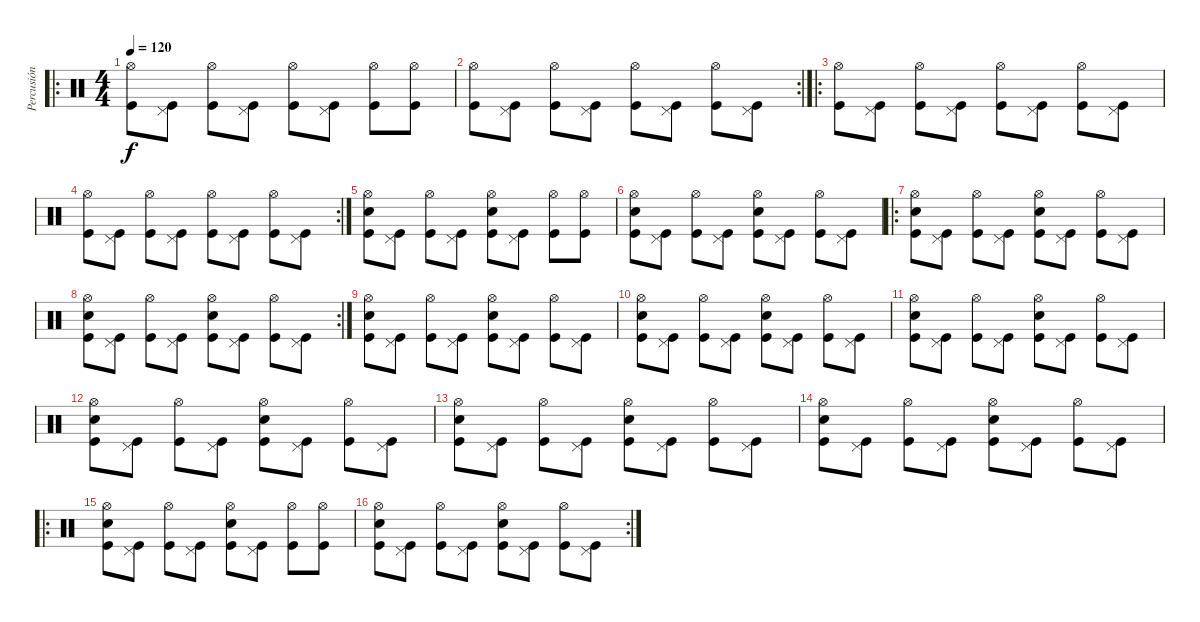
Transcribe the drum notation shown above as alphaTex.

\track ("Percusión" "Percusión") {instrument percussion}
\staff {score}
\articulation defaults
\ro
\ts (4 4)
\tempo 120
\clef neutral
\ks c
("Hi-Hat (open)" "Kick (hit)").8{dy f} ("Pedal Hi-Hat (hit)" "Kick (hit)").8 ("Hi-Hat (open)" "Kick (hit)").8 ("Pedal Hi-Hat (hit)" "Kick (hit)").8 ("Hi-Hat (open)" "Kick (hit)").8 ("Pedal Hi-Hat (hit)" "Kick (hit)").8 ("Hi-Hat (open)" "Kick (hit)").8 ("Hi-Hat (open)" "Kick (hit)").8 |
\rc 2
("Hi-Hat (open)" "Kick (hit)").8 ("Pedal Hi-Hat (hit)" "Kick (hit)").8 ("Hi-Hat (open)" "Kick (hit)").8 ("Pedal Hi-Hat (hit)" "Kick (hit)").8 ("Hi-Hat (open)" "Kick (hit)").8 ("Pedal Hi-Hat (hit)" "Kick (hit)").8 ("Hi-Hat (open)" "Kick (hit)").8 ("Pedal Hi-Hat (hit)" "Kick (hit)").8 |
\ro
("Hi-Hat (open)" "Kick (hit)").8 ("Pedal Hi-Hat (hit)" "Kick (hit)").8 ("Hi-Hat (open)" "Kick (hit)").8 ("Pedal Hi-Hat (hit)" "Kick (hit)").8 ("Hi-Hat (open)" "Kick (hit)").8 ("Pedal Hi-Hat (hit)" "Kick (hit)").8 ("Hi-Hat (open)" "Kick (hit)").8 ("Pedal Hi-Hat (hit)" "Kick (hit)").8 |
\rc 2
("Hi-Hat (open)" "Kick (hit)").8 ("Pedal Hi-Hat (hit)" "Kick (hit)").8 ("Hi-Hat (open)" "Kick (hit)").8 ("Pedal Hi-Hat (hit)" "Kick (hit)").8 ("Hi-Hat (open)" "Kick (hit)").8 ("Pedal Hi-Hat (hit)" "Kick (hit)").8 ("Hi-Hat (open)" "Kick (hit)").8 ("Pedal Hi-Hat (hit)" "Kick (hit)").8 |
("Hi-Hat (open)" "Snare (hit) 2" "Kick (hit)").8 ("Pedal Hi-Hat (hit)" "Kick (hit)").8 ("Hi-Hat (open)" "Kick (hit)").8 ("Pedal Hi-Hat (hit)" "Kick (hit)").8 ("Hi-Hat (open)" "Snare (hit) 2" "Kick (hit)").8 ("Pedal Hi-Hat (hit)" "Kick (hit)").8 ("Hi-Hat (open)" "Kick (hit)").8 ("Hi-Hat (open)" "Kick (hit)").8 |
("Hi-Hat (open)" "Snare (hit) 2" "Kick (hit)").8 ("Pedal Hi-Hat (hit)" "Kick (hit)").8 ("Hi-Hat (open)" "Kick (hit)").8 ("Pedal Hi-Hat (hit)" "Kick (hit)").8 ("Hi-Hat (open)" "Snare (hit) 2" "Kick (hit)").8 ("Pedal Hi-Hat (hit)" "Kick (hit)").8 ("Hi-Hat (open)" "Kick (hit)").8 ("Pedal Hi-Hat (hit)" "Kick (hit)").8 |
\ro
("Hi-Hat (open)" "Snare (hit) 2" "Kick (hit)").8 ("Pedal Hi-Hat (hit)" "Kick (hit)").8 ("Hi-Hat (open)" "Kick (hit)").8 ("Pedal Hi-Hat (hit)" "Kick (hit)").8 ("Hi-Hat (open)" "Snare (hit) 2" "Kick (hit)").8 ("Pedal Hi-Hat (hit)" "Kick (hit)").8 ("Hi-Hat (open)" "Kick (hit)").8 ("Pedal Hi-Hat (hit)" "Kick (hit)").8 |
\rc 2
("Hi-Hat (open)" "Snare (hit) 2" "Kick (hit)").8 ("Pedal Hi-Hat (hit)" "Kick (hit)").8 ("Hi-Hat (open)" "Kick (hit)").8 ("Pedal Hi-Hat (hit)" "Kick (hit)").8 ("Hi-Hat (open)" "Snare (hit) 2" "Kick (hit)").8 ("Pedal Hi-Hat (hit)" "Kick (hit)").8 ("Hi-Hat (open)" "Kick (hit)").8 ("Pedal Hi-Hat (hit)" "Kick (hit)").8 |
("Hi-Hat (open)" "Snare (hit) 2" "Kick (hit)").8 ("Pedal Hi-Hat (hit)" "Kick (hit)").8 ("Hi-Hat (open)" "Kick (hit)").8 ("Pedal Hi-Hat (hit)" "Kick (hit)").8 ("Hi-Hat (open)" "Snare (hit) 2" "Kick (hit)").8 ("Pedal Hi-Hat (hit)" "Kick (hit)").8 ("Hi-Hat (open)" "Kick (hit)").8 ("Pedal Hi-Hat (hit)" "Kick (hit)").8 |
("Hi-Hat (open)" "Snare (hit) 2" "Kick (hit)").8 ("Pedal Hi-Hat (hit)" "Kick (hit)").8 ("Hi-Hat (open)" "Kick (hit)").8 ("Pedal Hi-Hat (hit)" "Kick (hit)").8 ("Hi-Hat (open)" "Snare (hit) 2" "Kick (hit)").8 ("Pedal Hi-Hat (hit)" "Kick (hit)").8 ("Hi-Hat (open)" "Kick (hit)").8 ("Pedal Hi-Hat (hit)" "Kick (hit)").8 |
("Hi-Hat (open)" "Snare (hit) 2" "Kick (hit)").8 ("Pedal Hi-Hat (hit)" "Kick (hit)").8 ("Hi-Hat (open)" "Kick (hit)").8 ("Pedal Hi-Hat (hit)" "Kick (hit)").8 ("Hi-Hat (open)" "Snare (hit) 2" "Kick (hit)").8 ("Pedal Hi-Hat (hit)" "Kick (hit)").8 ("Hi-Hat (open)" "Kick (hit)").8 ("Pedal Hi-Hat (hit)" "Kick (hit)").8 |
("Hi-Hat (open)" "Snare (hit) 2" "Kick (hit)").8 ("Pedal Hi-Hat (hit)" "Kick (hit)").8 ("Hi-Hat (open)" "Kick (hit)").8 ("Pedal Hi-Hat (hit)" "Kick (hit)").8 ("Hi-Hat (open)" "Snare (hit) 2" "Kick (hit)").8 ("Pedal Hi-Hat (hit)" "Kick (hit)").8 ("Hi-Hat (open)" "Kick (hit)").8 ("Pedal Hi-Hat (hit)" "Kick (hit)").8 |
("Hi-Hat (open)" "Snare (hit) 2" "Kick (hit)").8 ("Pedal Hi-Hat (hit)" "Kick (hit)").8 ("Hi-Hat (open)" "Kick (hit)").8 ("Pedal Hi-Hat (hit)" "Kick (hit)").8 ("Hi-Hat (open)" "Snare (hit) 2" "Kick (hit)").8 ("Pedal Hi-Hat (hit)" "Kick (hit)").8 ("Hi-Hat (open)" "Kick (hit)").8 ("Pedal Hi-Hat (hit)" "Kick (hit)").8 |
("Hi-Hat (open)" "Snare (hit) 2" "Kick (hit)").8 ("Pedal Hi-Hat (hit)" "Kick (hit)").8 ("Hi-Hat (open)" "Kick (hit)").8 ("Pedal Hi-Hat (hit)" "Kick (hit)").8 ("Hi-Hat (open)" "Snare (hit) 2" "Kick (hit)").8 ("Pedal Hi-Hat (hit)" "Kick (hit)").8 ("Hi-Hat (open)" "Kick (hit)").8 ("Pedal Hi-Hat (hit)" "Kick (hit)").8 |
\ro
("Hi-Hat (open)" "Snare (hit) 2" "Kick (hit)").8 ("Pedal Hi-Hat (hit)" "Kick (hit)").8 ("Hi-Hat (open)" "Kick (hit)").8 ("Pedal Hi-Hat (hit)" "Kick (hit)").8 ("Hi-Hat (open)" "Snare (hit) 2" "Kick (hit)").8 ("Pedal Hi-Hat (hit)" "Kick (hit)").8 ("Hi-Hat (open)" "Kick (hit)").8 ("Hi-Hat (open)" "Kick (hit)").8 |
\rc 2
("Hi-Hat (open)" "Snare (hit) 2" "Kick (hit)").8 ("Pedal Hi-Hat (hit)" "Kick (hit)").8 ("Hi-Hat (open)" "Kick (hit)").8 ("Pedal Hi-Hat (hit)" "Kick (hit)").8 ("Hi-Hat (open)" "Snare (hit) 2" "Kick (hit)").8 ("Pedal Hi-Hat (hit)" "Kick (hit)").8 ("Hi-Hat (open)" "Kick (hit)").8 ("Pedal Hi-Hat (hit)" "Kick (hit)").8
